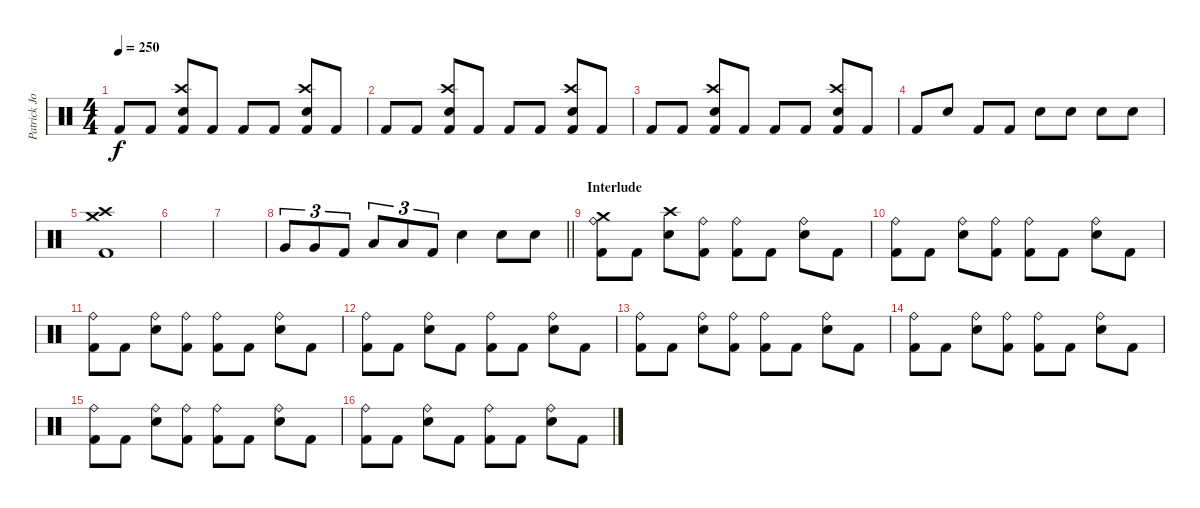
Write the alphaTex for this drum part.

\track ("Patrick Johansson" "Patrick Jo") {instrument percussion}
\staff {score}
\articulation defaults
\ts (4 4)
\tempo 250
\clef neutral
\ks c "Kick (hit) 2".8{dy f} "Kick (hit) 2".8
("Crash high (hit)" "Snare (hit) 2" "Kick (hit) 2").8 "Kick (hit) 2".8 "Kick (hit) 2".8 "Kick (hit) 2".8 ("Crash high (hit)" "Snare (hit) 2" "Kick (hit) 2").8 "Kick (hit) 2".8 |
"Kick (hit) 2".8 "Kick (hit) 2".8 ("Crash high (hit)" "Snare (hit) 2" "Kick (hit) 2").8 "Kick (hit) 2".8 "Kick (hit) 2".8 "Kick (hit) 2".8 ("Crash high (hit)" "Snare (hit) 2" "Kick (hit) 2").8 "Kick (hit) 2".8 |
"Kick (hit) 2".8 "Kick (hit) 2".8 ("Crash high (hit)" "Snare (hit) 2" "Kick (hit) 2").8 "Kick (hit) 2".8 "Kick (hit) 2".8 "Kick (hit) 2".8 ("Crash high (hit)" "Snare (hit) 2" "Kick (hit) 2").8 "Kick (hit) 2".8 |
"Kick (hit) 2".8 "Snare (hit) 2".8 "Kick (hit) 2".8 "Kick (hit) 2".8 "Snare (hit) 2".8 "Snare (hit) 2".8 "Snare (hit) 2".8 "Snare (hit) 2".8 |
("Crash medium (hit)" "Crash high (hit)" "Kick (hit) 2").1 |
|
|
\barLineRight lightlight "Very Low Tom (hit)".8{tu (3 2)} "Very Low Tom (hit)".8{tu (3 2)} "Kick (hit) 2".8{tu (3 2)} "Low Floor Tom (hit)".8{tu (3 2)} "Low Floor Tom (hit)".8{tu (3 2)} "Kick (hit) 2".8{tu (3 2)} "Snare (hit) 2".4 "Snare (hit) 2".8 "Snare (hit) 2".8
|
\section ("" "Interlude")
("Crash medium (hit)" "Ride (bell)" "Kick (hit) 2").8 "Kick (hit) 2".8 ("Crash high (hit)" "Snare (hit) 2").8 ("Ride (bell)" "Kick (hit) 2").8 ("Ride (bell)" "Kick (hit) 2").8 "Kick (hit) 2".8 ("Ride (bell)" "Snare (hit) 2").8 "Kick (hit) 2".8 |
("Ride (bell)" "Kick (hit) 2").8 "Kick (hit) 2".8 ("Ride (bell)" "Snare (hit) 2").8 ("Ride (bell)" "Kick (hit) 2").8 ("Ride (bell)" "Kick (hit) 2").8 "Kick (hit) 2".8 ("Ride (bell)" "Snare (hit) 2").8 "Kick (hit) 2".8 |
("Ride (bell)" "Kick (hit) 2").8 "Kick (hit) 2".8 ("Ride (bell)" "Snare (hit) 2").8 ("Ride (bell)" "Kick (hit) 2").8 ("Ride (bell)" "Kick (hit) 2").8 "Kick (hit) 2".8 ("Ride (bell)" "Snare (hit) 2").8 "Kick (hit) 2".8 |
("Ride (bell)" "Kick (hit) 2").8 "Kick (hit) 2".8 ("Ride (bell)" "Snare (hit) 2").8 "Kick (hit) 2".8 ("Ride (bell)" "Kick (hit) 2").8 "Kick (hit) 2".8 ("Ride (bell)" "Snare (hit) 2").8 "Kick (hit) 2".8 |
("Ride (bell)" "Kick (hit) 2").8 "Kick (hit) 2".8 ("Ride (bell)" "Snare (hit) 2").8 ("Ride (bell)" "Kick (hit) 2").8 ("Ride (bell)" "Kick (hit) 2").8 "Kick (hit) 2".8 ("Ride (bell)" "Snare (hit) 2").8 "Kick (hit) 2".8 |
("Ride (bell)" "Kick (hit) 2").8 "Kick (hit) 2".8 ("Ride (bell)" "Snare (hit) 2").8 ("Ride (bell)" "Kick (hit) 2").8 ("Ride (bell)" "Kick (hit) 2").8 "Kick (hit) 2".8 ("Ride (bell)" "Snare (hit) 2").8 "Kick (hit) 2".8 |
("Ride (bell)" "Kick (hit) 2").8 "Kick (hit) 2".8 ("Ride (bell)" "Snare (hit) 2").8 ("Ride (bell)" "Kick (hit) 2").8 ("Ride (bell)" "Kick (hit) 2").8 "Kick (hit) 2".8 ("Ride (bell)" "Snare (hit) 2").8 "Kick (hit) 2".8 |
("Ride (bell)" "Kick (hit) 2").8 "Kick (hit) 2".8 ("Ride (bell)" "Snare (hit) 2").8 "Kick (hit) 2".8 ("Ride (bell)" "Kick (hit) 2").8 "Kick (hit) 2".8 ("Ride (bell)" "Snare (hit) 2").8 "Kick (hit) 2".8
